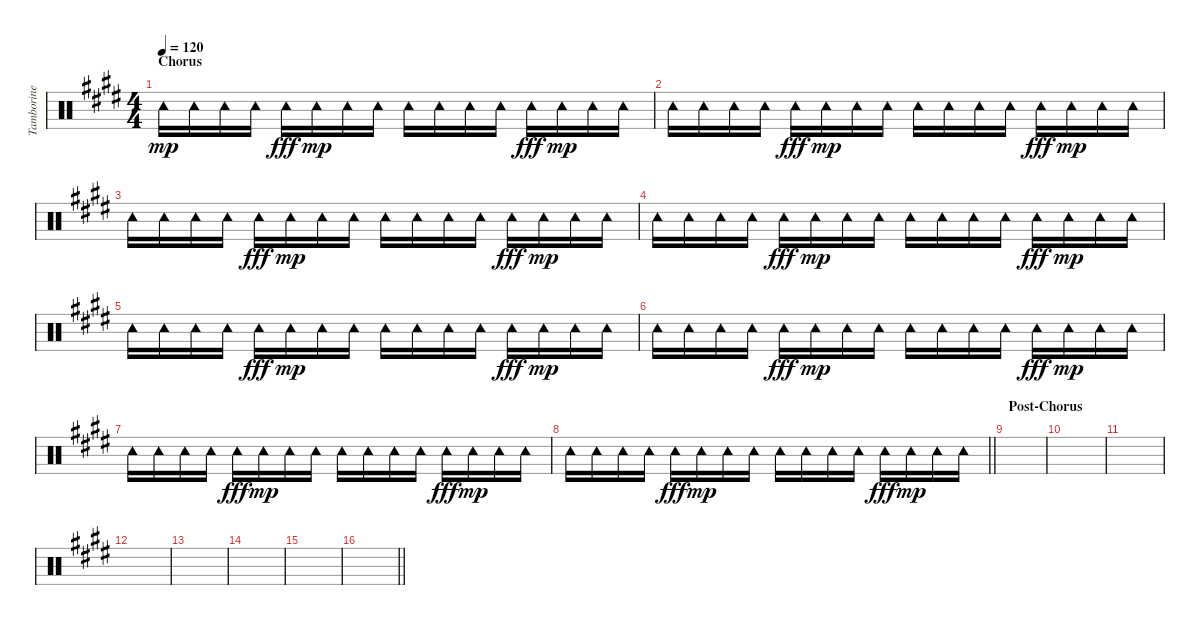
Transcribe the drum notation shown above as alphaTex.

\track ("Tamborine" "Tamborine") {instrument percussion}
\staff {score}
\articulation defaults
\ts (4 4)
\section ("" "Chorus")
\tempo 120
\clef neutral
\ks e "Tambourine (hit)".16{dy mp} "Tambourine (hit)".16 "Tambourine (hit)".16 "Tambourine (hit)".16 "Tambourine (hit)".16{dy fff} "Tambourine (hit)".16{dy mp} "Tambourine (hit)".16 "Tambourine (hit)".16 "Tambourine (hit)".16 "Tambourine (hit)".16 "Tambourine (hit)".16 "Tambourine (hit)".16 "Tambourine (hit)".16{dy fff} "Tambourine (hit)".16{dy mp} "Tambourine (hit)".16 "Tambourine (hit)".16
|
"Tambourine (hit)".16 "Tambourine (hit)".16 "Tambourine (hit)".16 "Tambourine (hit)".16 "Tambourine (hit)".16{dy fff} "Tambourine (hit)".16{dy mp} "Tambourine (hit)".16 "Tambourine (hit)".16 "Tambourine (hit)".16 "Tambourine (hit)".16 "Tambourine (hit)".16 "Tambourine (hit)".16 "Tambourine (hit)".16{dy fff} "Tambourine (hit)".16{dy mp} "Tambourine (hit)".16 "Tambourine (hit)".16 |
"Tambourine (hit)".16 "Tambourine (hit)".16 "Tambourine (hit)".16 "Tambourine (hit)".16 "Tambourine (hit)".16{dy fff} "Tambourine (hit)".16{dy mp} "Tambourine (hit)".16 "Tambourine (hit)".16 "Tambourine (hit)".16 "Tambourine (hit)".16 "Tambourine (hit)".16 "Tambourine (hit)".16 "Tambourine (hit)".16{dy fff} "Tambourine (hit)".16{dy mp} "Tambourine (hit)".16 "Tambourine (hit)".16 |
"Tambourine (hit)".16 "Tambourine (hit)".16 "Tambourine (hit)".16 "Tambourine (hit)".16 "Tambourine (hit)".16{dy fff} "Tambourine (hit)".16{dy mp} "Tambourine (hit)".16 "Tambourine (hit)".16 "Tambourine (hit)".16 "Tambourine (hit)".16 "Tambourine (hit)".16 "Tambourine (hit)".16 "Tambourine (hit)".16{dy fff} "Tambourine (hit)".16{dy mp} "Tambourine (hit)".16 "Tambourine (hit)".16 |
"Tambourine (hit)".16 "Tambourine (hit)".16 "Tambourine (hit)".16 "Tambourine (hit)".16 "Tambourine (hit)".16{dy fff} "Tambourine (hit)".16{dy mp} "Tambourine (hit)".16 "Tambourine (hit)".16 "Tambourine (hit)".16 "Tambourine (hit)".16 "Tambourine (hit)".16 "Tambourine (hit)".16 "Tambourine (hit)".16{dy fff} "Tambourine (hit)".16{dy mp} "Tambourine (hit)".16 "Tambourine (hit)".16 |
"Tambourine (hit)".16 "Tambourine (hit)".16 "Tambourine (hit)".16 "Tambourine (hit)".16 "Tambourine (hit)".16{dy fff} "Tambourine (hit)".16{dy mp} "Tambourine (hit)".16 "Tambourine (hit)".16 "Tambourine (hit)".16 "Tambourine (hit)".16 "Tambourine (hit)".16 "Tambourine (hit)".16 "Tambourine (hit)".16{dy fff} "Tambourine (hit)".16{dy mp} "Tambourine (hit)".16 "Tambourine (hit)".16 |
"Tambourine (hit)".16 "Tambourine (hit)".16 "Tambourine (hit)".16 "Tambourine (hit)".16 "Tambourine (hit)".16{dy fff} "Tambourine (hit)".16{dy mp} "Tambourine (hit)".16 "Tambourine (hit)".16 "Tambourine (hit)".16 "Tambourine (hit)".16 "Tambourine (hit)".16 "Tambourine (hit)".16 "Tambourine (hit)".16{dy fff} "Tambourine (hit)".16{dy mp} "Tambourine (hit)".16 "Tambourine (hit)".16 |
\barLineRight lightlight "Tambourine (hit)".16 "Tambourine (hit)".16 "Tambourine (hit)".16 "Tambourine (hit)".16 "Tambourine (hit)".16{dy fff} "Tambourine (hit)".16{dy mp} "Tambourine (hit)".16 "Tambourine (hit)".16 "Tambourine (hit)".16 "Tambourine (hit)".16 "Tambourine (hit)".16 "Tambourine (hit)".16 "Tambourine (hit)".16{dy fff} "Tambourine (hit)".16{dy mp} "Tambourine (hit)".16 "Tambourine (hit)".16
|
\section ("" "Post-Chorus")
|
|
|
|
|
|
|
\barLineRight lightlight
